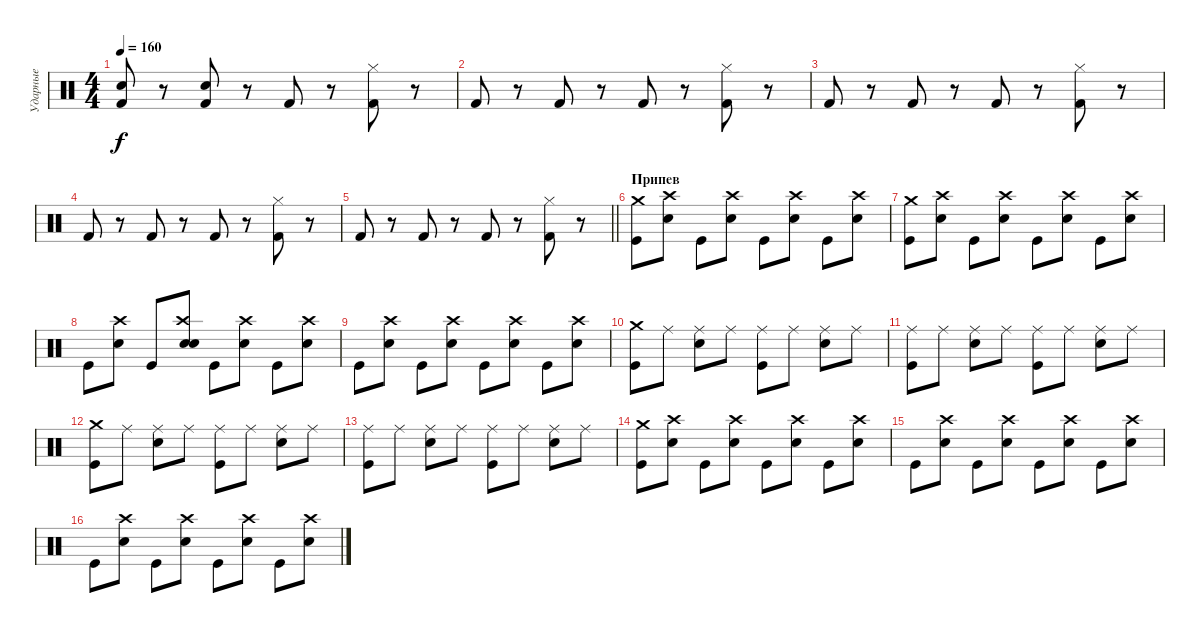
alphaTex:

\track ("Ударные" "Ударные") {instrument percussion}
\staff {score}
\articulation defaults
\ts (4 4)
\tempo 160
\clef neutral
\ks c
("Kick (hit) 2" "Snare (hit)").8{dy f} r.8 ("Kick (hit) 2" "Snare (hit)").8 r.8 "Kick (hit) 2".8 r.8 ("Kick (hit) 2" "Hi-Hat (closed)").8 r.8 |
"Kick (hit) 2".8 r.8 "Kick (hit) 2".8 r.8 "Kick (hit) 2".8 r.8 ("Kick (hit) 2" "Hi-Hat (closed)").8 r.8 |
"Kick (hit) 2".8 r.8 "Kick (hit) 2".8 r.8 "Kick (hit) 2".8 r.8 ("Kick (hit) 2" "Hi-Hat (closed)").8 r.8 |
"Kick (hit) 2".8 r.8 "Kick (hit) 2".8 r.8 "Kick (hit) 2".8 r.8 ("Kick (hit) 2" "Hi-Hat (closed)").8 r.8 |
\barLineRight lightlight "Kick (hit) 2".8
r.8 "Kick (hit) 2".8 r.8 "Kick (hit) 2".8 r.8 ("Kick (hit) 2" "Hi-Hat (closed)").8 r.8 |
\section ("" "Припев")
("Crash medium (hit)" "Kick (hit)").8 ("Crash high (hit)" "Snare (hit) 2").8 "Kick (hit)".8 ("Crash high (hit)" "Snare (hit) 2").8 "Kick (hit)".8 ("Crash high (hit)" "Snare (hit) 2").8 "Kick (hit)".8 ("Crash high (hit)" "Snare (hit) 2").8 |
("Crash medium (hit)" "Kick (hit)").8 ("Crash high (hit)" "Snare (hit) 2").8 "Kick (hit)".8 ("Crash high (hit)" "Snare (hit) 2").8 "Kick (hit)".8 ("Crash high (hit)" "Snare (hit) 2").8 "Kick (hit)".8 ("Crash high (hit)" "Snare (hit) 2").8 |
"Kick (hit)".8 ("Crash high (hit)" "Snare (hit) 2").8 "Kick (hit)".8 ("Crash high (hit)" "Electric Snare (hit)" "Snare (hit) 2").8 "Kick (hit)".8 ("Crash high (hit)" "Snare (hit) 2").8 "Kick (hit)".8 ("Crash high (hit)" "Snare (hit) 2").8 |
"Kick (hit)".8 ("Crash high (hit)" "Snare (hit) 2").8 "Kick (hit)".8 ("Crash high (hit)" "Snare (hit) 2").8 "Kick (hit)".8 ("Crash high (hit)" "Snare (hit) 2").8 "Kick (hit)".8 ("Crash high (hit)" "Snare (hit) 2").8 |
("Crash medium (hit)" "Kick (hit)").8 "Ride (middle)".8 ("Ride (middle)" "Electric Snare (hit)").8 "Ride (middle)".8 ("Ride (middle)" "Kick (hit)").8 "Ride (middle)".8 ("Ride (middle)" "Electric Snare (hit)").8 "Ride (middle)".8 |
("Ride (middle)" "Kick (hit)").8 "Ride (middle)".8 ("Ride (middle)" "Electric Snare (hit)").8 "Ride (middle)".8 ("Ride (middle)" "Kick (hit)").8 "Ride (middle)".8 ("Ride (middle)" "Electric Snare (hit)").8 "Ride (middle)".8 |
("Crash medium (hit)" "Kick (hit)").8 "Ride (middle)".8 ("Ride (middle)" "Electric Snare (hit)").8 "Ride (middle)".8 ("Ride (middle)" "Kick (hit)").8 "Ride (middle)".8 ("Ride (middle)" "Electric Snare (hit)").8 "Ride (middle)".8 |
("Ride (middle)" "Kick (hit)").8 "Ride (middle)".8 ("Ride (middle)" "Electric Snare (hit)").8 "Ride (middle)".8 ("Ride (middle)" "Kick (hit)").8 "Ride (middle)".8 ("Ride (middle)" "Electric Snare (hit)").8 "Ride (middle)".8 |
("Crash medium (hit)" "Kick (hit)").8 ("Crash high (hit)" "Snare (hit) 2").8 "Kick (hit)".8 ("Crash high (hit)" "Snare (hit) 2").8 "Kick (hit)".8 ("Crash high (hit)" "Snare (hit) 2").8 "Kick (hit)".8 ("Crash high (hit)" "Snare (hit) 2").8 |
"Kick (hit)".8 ("Crash high (hit)" "Snare (hit) 2").8 "Kick (hit)".8 ("Crash high (hit)" "Snare (hit) 2").8 "Kick (hit)".8 ("Crash high (hit)" "Snare (hit) 2").8 "Kick (hit)".8 ("Crash high (hit)" "Snare (hit) 2").8 |
"Kick (hit)".8 ("Crash high (hit)" "Snare (hit) 2").8 "Kick (hit)".8 ("Crash high (hit)" "Snare (hit) 2").8 "Kick (hit)".8 ("Crash high (hit)" "Snare (hit) 2").8 "Kick (hit)".8 ("Crash high (hit)" "Snare (hit) 2").8
